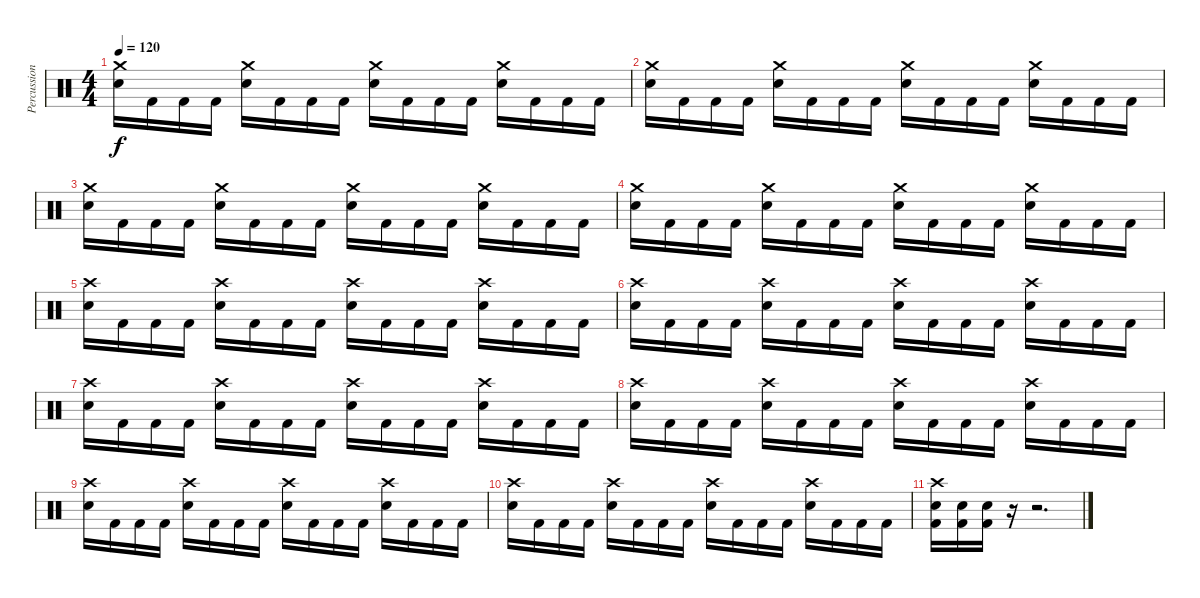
\track ("Percussion" "Percussion") {instrument percussion}
\staff {score}
\articulation defaults
\ts (4 4)
\tempo 120
\clef neutral
\ks c
("Crash medium (hit)" "Electric Snare (hit)").16{dy f} "Kick (hit) 2".16 "Kick (hit) 2".16 "Kick (hit) 2".16 ("Crash medium (hit)" "Electric Snare (hit)").16 "Kick (hit) 2".16 "Kick (hit) 2".16 "Kick (hit) 2".16 ("Crash medium (hit)" "Electric Snare (hit)").16 "Kick (hit) 2".16 "Kick (hit) 2".16 "Kick (hit) 2".16 ("Crash medium (hit)" "Electric Snare (hit)").16 "Kick (hit) 2".16 "Kick (hit) 2".16 "Kick (hit) 2".16 |
("Crash medium (hit)" "Electric Snare (hit)").16 "Kick (hit) 2".16 "Kick (hit) 2".16 "Kick (hit) 2".16 ("Crash medium (hit)" "Electric Snare (hit)").16 "Kick (hit) 2".16 "Kick (hit) 2".16 "Kick (hit) 2".16 ("Crash medium (hit)" "Electric Snare (hit)").16 "Kick (hit) 2".16 "Kick (hit) 2".16 "Kick (hit) 2".16 ("Crash medium (hit)" "Electric Snare (hit)").16 "Kick (hit) 2".16 "Kick (hit) 2".16 "Kick (hit) 2".16 |
("Crash medium (hit)" "Electric Snare (hit)").16 "Kick (hit) 2".16 "Kick (hit) 2".16 "Kick (hit) 2".16 ("Crash medium (hit)" "Electric Snare (hit)").16 "Kick (hit) 2".16 "Kick (hit) 2".16 "Kick (hit) 2".16 ("Crash medium (hit)" "Electric Snare (hit)").16 "Kick (hit) 2".16 "Kick (hit) 2".16 "Kick (hit) 2".16 ("Crash medium (hit)" "Electric Snare (hit)").16 "Kick (hit) 2".16 "Kick (hit) 2".16 "Kick (hit) 2".16 |
("Crash medium (hit)" "Electric Snare (hit)").16 "Kick (hit) 2".16 "Kick (hit) 2".16 "Kick (hit) 2".16 ("Crash medium (hit)" "Electric Snare (hit)").16 "Kick (hit) 2".16 "Kick (hit) 2".16 "Kick (hit) 2".16 ("Crash medium (hit)" "Electric Snare (hit)").16 "Kick (hit) 2".16 "Kick (hit) 2".16 "Kick (hit) 2".16 ("Crash medium (hit)" "Electric Snare (hit)").16 "Kick (hit) 2".16 "Kick (hit) 2".16 "Kick (hit) 2".16 |
("Crash high (hit)" "Electric Snare (hit)").16 "Kick (hit) 2".16 "Kick (hit) 2".16 "Kick (hit) 2".16 ("Crash high (hit)" "Electric Snare (hit)").16 "Kick (hit) 2".16 "Kick (hit) 2".16 "Kick (hit) 2".16 ("Crash high (hit)" "Electric Snare (hit)").16 "Kick (hit) 2".16 "Kick (hit) 2".16 "Kick (hit) 2".16 ("Crash high (hit)" "Electric Snare (hit)").16 "Kick (hit) 2".16 "Kick (hit) 2".16 "Kick (hit) 2".16 |
("Crash high (hit)" "Electric Snare (hit)").16 "Kick (hit) 2".16 "Kick (hit) 2".16 "Kick (hit) 2".16 ("Crash high (hit)" "Electric Snare (hit)").16 "Kick (hit) 2".16 "Kick (hit) 2".16 "Kick (hit) 2".16 ("Crash high (hit)" "Electric Snare (hit)").16 "Kick (hit) 2".16 "Kick (hit) 2".16 "Kick (hit) 2".16 ("Crash high (hit)" "Electric Snare (hit)").16 "Kick (hit) 2".16 "Kick (hit) 2".16 "Kick (hit) 2".16 |
("Crash high (hit)" "Electric Snare (hit)").16 "Kick (hit) 2".16 "Kick (hit) 2".16 "Kick (hit) 2".16 ("Crash high (hit)" "Electric Snare (hit)").16 "Kick (hit) 2".16 "Kick (hit) 2".16 "Kick (hit) 2".16 ("Crash high (hit)" "Electric Snare (hit)").16 "Kick (hit) 2".16 "Kick (hit) 2".16 "Kick (hit) 2".16 ("Crash high (hit)" "Electric Snare (hit)").16 "Kick (hit) 2".16 "Kick (hit) 2".16 "Kick (hit) 2".16 |
("Crash high (hit)" "Electric Snare (hit)").16 "Kick (hit) 2".16 "Kick (hit) 2".16 "Kick (hit) 2".16 ("Crash high (hit)" "Electric Snare (hit)").16 "Kick (hit) 2".16 "Kick (hit) 2".16 "Kick (hit) 2".16 ("Crash high (hit)" "Electric Snare (hit)").16 "Kick (hit) 2".16 "Kick (hit) 2".16 "Kick (hit) 2".16 ("Crash high (hit)" "Electric Snare (hit)").16 "Kick (hit) 2".16 "Kick (hit) 2".16 "Kick (hit) 2".16 |
("Crash high (hit)" "Electric Snare (hit)").16 "Kick (hit) 2".16 "Kick (hit) 2".16 "Kick (hit) 2".16 ("Crash high (hit)" "Electric Snare (hit)").16 "Kick (hit) 2".16 "Kick (hit) 2".16 "Kick (hit) 2".16 ("Crash high (hit)" "Electric Snare (hit)").16 "Kick (hit) 2".16 "Kick (hit) 2".16 "Kick (hit) 2".16 ("Crash high (hit)" "Electric Snare (hit)").16 "Kick (hit) 2".16 "Kick (hit) 2".16 "Kick (hit) 2".16 |
("Crash high (hit)" "Electric Snare (hit)").16 "Kick (hit) 2".16 "Kick (hit) 2".16 "Kick (hit) 2".16 ("Crash high (hit)" "Electric Snare (hit)").16 "Kick (hit) 2".16 "Kick (hit) 2".16 "Kick (hit) 2".16 ("Crash high (hit)" "Electric Snare (hit)").16 "Kick (hit) 2".16 "Kick (hit) 2".16 "Kick (hit) 2".16 ("Crash high (hit)" "Electric Snare (hit)").16 "Kick (hit) 2".16 "Kick (hit) 2".16 "Kick (hit) 2".16 |
("Crash high (hit)" "Electric Snare (hit)" "Kick (hit) 2").16 ("Electric Snare (hit)" "Kick (hit) 2").16 ("Electric Snare (hit)" "Kick (hit) 2").16 r.16 r.2{d}
